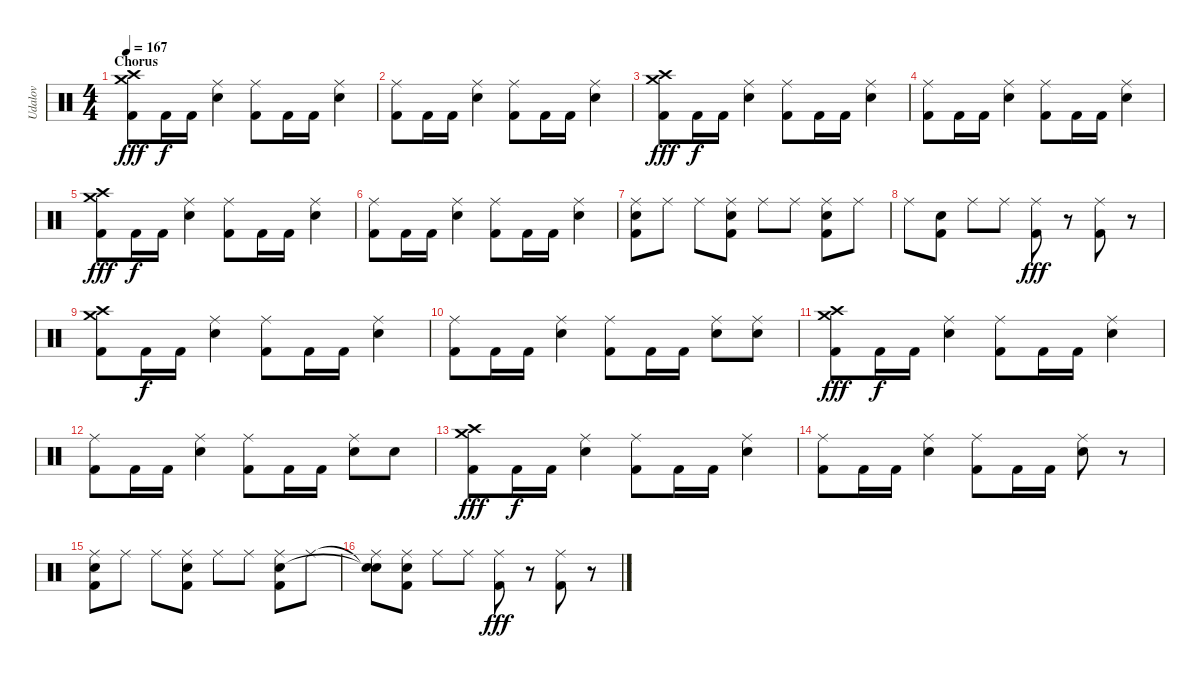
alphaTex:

\track ("Udalov" "Udalov") {instrument percussion}
\staff {score}
\articulation defaults
\ts (4 4)
\section ("" "Chorus")
\tempo 167
\clef neutral
\ks c
("Kick (hit) 2" "Crash high (hit)" "Crash medium (hit)").8{dy fff} "Kick (hit) 2".16{dy f} "Kick (hit) 2".16 ("Snare (hit) 2" "Ride (middle)").4 ("Kick (hit) 2" "Ride (middle)").8 "Kick (hit) 2".16 "Kick (hit) 2".16 ("Snare (hit) 2" "Ride (middle)").4 |
("Kick (hit) 2" "Ride (middle)").8 "Kick (hit) 2".16 "Kick (hit) 2".16 ("Snare (hit) 2" "Ride (middle)").4 ("Kick (hit) 2" "Ride (middle)").8 "Kick (hit) 2".16 "Kick (hit) 2".16 ("Snare (hit) 2" "Ride (middle)").4 |
("Kick (hit) 2" "Crash high (hit)" "Crash medium (hit)").8{dy fff} "Kick (hit) 2".16{dy f} "Kick (hit) 2".16 ("Snare (hit) 2" "Ride (middle)").4 ("Kick (hit) 2" "Ride (middle)").8 "Kick (hit) 2".16 "Kick (hit) 2".16 ("Snare (hit) 2" "Ride (middle)").4 |
("Kick (hit) 2" "Ride (middle)").8 "Kick (hit) 2".16 "Kick (hit) 2".16 ("Snare (hit) 2" "Ride (middle)").4 ("Kick (hit) 2" "Ride (middle)").8 "Kick (hit) 2".16 "Kick (hit) 2".16 ("Snare (hit) 2" "Ride (middle)").4 |
("Kick (hit) 2" "Crash high (hit)" "Crash medium (hit)").8{dy fff} "Kick (hit) 2".16{dy f} "Kick (hit) 2".16 ("Snare (hit) 2" "Ride (middle)").4 ("Kick (hit) 2" "Ride (middle)").8 "Kick (hit) 2".16 "Kick (hit) 2".16 ("Snare (hit) 2" "Ride (middle)").4 |
("Kick (hit) 2" "Ride (middle)").8 "Kick (hit) 2".16 "Kick (hit) 2".16 ("Snare (hit) 2" "Ride (middle)").4 ("Kick (hit) 2" "Ride (middle)").8 "Kick (hit) 2".16 "Kick (hit) 2".16 ("Snare (hit) 2" "Ride (middle)").4 |
("Kick (hit) 2" "Electric Snare (hit)" "Ride (middle)").8 "Ride (middle)".8 "Ride (middle)".8 ("Kick (hit) 2" "Electric Snare (hit)" "Ride (middle)").8 "Ride (middle)".8 "Ride (middle)".8 ("Kick (hit) 2" "Electric Snare (hit)" "Ride (middle)").8 "Ride (middle)".8 |
"Ride (middle)".8 ("Electric Snare (hit)" "Kick (hit) 2").8 "Ride (middle)".8 "Ride (middle)".8 ("Ride (middle)" "Kick (hit) 2").8{dy fff} r.8 ("Ride (middle)" "Kick (hit) 2").8 r.8 |
("Kick (hit) 2" "Crash high (hit)" "Crash medium (hit)").8 "Kick (hit) 2".16{dy f} "Kick (hit) 2".16 ("Snare (hit) 2" "Ride (middle)").4 ("Kick (hit) 2" "Ride (middle)").8 "Kick (hit) 2".16 "Kick (hit) 2".16 ("Snare (hit) 2" "Ride (middle)").4 |
("Kick (hit) 2" "Ride (middle)").8 "Kick (hit) 2".16 "Kick (hit) 2".16 ("Snare (hit) 2" "Ride (middle)").4 ("Kick (hit) 2" "Ride (middle)").8 "Kick (hit) 2".16 "Kick (hit) 2".16 ("Snare (hit) 2" "Ride (middle)").8 ("Snare (hit) 2" "Ride (middle)").8 |
("Kick (hit) 2" "Crash high (hit)" "Crash medium (hit)").8{dy fff} "Kick (hit) 2".16{dy f} "Kick (hit) 2".16 ("Snare (hit) 2" "Ride (middle)").4 ("Kick (hit) 2" "Ride (middle)").8 "Kick (hit) 2".16 "Kick (hit) 2".16 ("Snare (hit) 2" "Ride (middle)").4 |
("Kick (hit) 2" "Ride (middle)").8 "Kick (hit) 2".16 "Kick (hit) 2".16 ("Snare (hit) 2" "Ride (middle)").4 ("Kick (hit) 2" "Ride (middle)").8 "Kick (hit) 2".16 "Kick (hit) 2".16 ("Snare (hit) 2" "Ride (middle)").8 "Snare (hit) 2".8 |
("Kick (hit) 2" "Crash high (hit)" "Crash medium (hit)").8{dy fff} "Kick (hit) 2".16{dy f} "Kick (hit) 2".16 ("Snare (hit) 2" "Ride (middle)").4 ("Kick (hit) 2" "Ride (middle)").8 "Kick (hit) 2".16 "Kick (hit) 2".16 ("Snare (hit) 2" "Ride (middle)").4 |
("Kick (hit) 2" "Ride (middle)").8 "Kick (hit) 2".16 "Kick (hit) 2".16 ("Snare (hit) 2" "Ride (middle)").4 ("Kick (hit) 2" "Ride (middle)").8 "Kick (hit) 2".16 "Kick (hit) 2".16 ("Snare (hit) 2" "Ride (middle)").8 r.8 |
("Kick (hit) 2" "Electric Snare (hit)" "Ride (middle)").8 "Ride (middle)".8 "Ride (middle)".8 ("Kick (hit) 2" "Electric Snare (hit)" "Ride (middle)").8 "Ride (middle)".8 "Ride (middle)".8 ("Kick (hit) 2" "Electric Snare (hit)" "Ride (middle)").8 "Ride (middle)".8 |
("Snare (hit)"{t} "Snare (hit)"{t} "Ride (middle)").8 ("Electric Snare (hit)" "Kick (hit) 2" "Ride (middle)").8 "Ride (middle)".8 "Ride (middle)".8 ("Ride (middle)" "Kick (hit) 2").8{dy fff} r.8 ("Ride (middle)" "Kick (hit) 2").8 r.8
